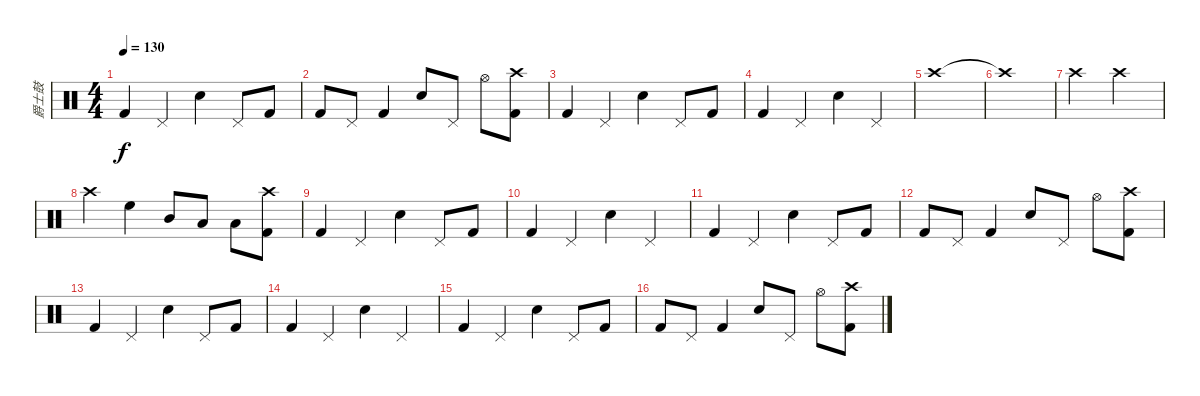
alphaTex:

\track ("爵士鼓" "爵士鼓") {instrument percussion}
\staff {score}
\articulation defaults
\ts (4 4)
\tempo 130
\clef neutral
\ks c "Kick (hit) 2".4{dy f} "Pedal Hi-Hat (hit)".4 "Snare (hit) 2".4 "Pedal Hi-Hat (hit)".8 "Kick (hit) 2".8
|
"Kick (hit) 2".8 "Pedal Hi-Hat (hit)".8 "Kick (hit) 2".4 "Snare (hit) 2".8 "Pedal Hi-Hat (hit)".8 "Hi-Hat (open)".8 ("Kick (hit) 2" "Crash high (hit)").8 |
"Kick (hit) 2".4 "Pedal Hi-Hat (hit)".4 "Snare (hit) 2".4 "Pedal Hi-Hat (hit)".8 "Kick (hit) 2".8 |
"Kick (hit) 2".4 "Pedal Hi-Hat (hit)".4 "Snare (hit) 2".4 "Pedal Hi-Hat (hit)".4 |
"Crash high (hit)".1 |
"Crash high (hit)"{t}.1 |
"Crash high (hit)".2 "Crash high (hit)".2 |
"Crash high (hit)".4 "High Floor Tom (hit)".4 "Mid Tom (hit)".8 "Low Tom (hit)".8 "Low Floor Tom (hit)".8 ("Kick (hit) 2" "Crash high (hit)").8 |
"Kick (hit) 2".4 "Pedal Hi-Hat (hit)".4 "Snare (hit) 2".4 "Pedal Hi-Hat (hit)".8 "Kick (hit) 2".8 |
"Kick (hit) 2".4 "Pedal Hi-Hat (hit)".4 "Snare (hit) 2".4 "Pedal Hi-Hat (hit)".4 |
"Kick (hit) 2".4 "Pedal Hi-Hat (hit)".4 "Snare (hit) 2".4 "Pedal Hi-Hat (hit)".8 "Kick (hit) 2".8 |
"Kick (hit) 2".8 "Pedal Hi-Hat (hit)".8 "Kick (hit) 2".4 "Snare (hit) 2".8 "Pedal Hi-Hat (hit)".8 "Hi-Hat (open)".8 ("Kick (hit) 2" "Crash high (hit)").8 |
"Kick (hit) 2".4 "Pedal Hi-Hat (hit)".4 "Snare (hit) 2".4 "Pedal Hi-Hat (hit)".8 "Kick (hit) 2".8 |
"Kick (hit) 2".4 "Pedal Hi-Hat (hit)".4 "Snare (hit) 2".4 "Pedal Hi-Hat (hit)".4 |
"Kick (hit) 2".4 "Pedal Hi-Hat (hit)".4 "Snare (hit) 2".4 "Pedal Hi-Hat (hit)".8 "Kick (hit) 2".8 |
"Kick (hit) 2".8 "Pedal Hi-Hat (hit)".8 "Kick (hit) 2".4 "Snare (hit) 2".8 "Pedal Hi-Hat (hit)".8 "Hi-Hat (open)".8 ("Kick (hit) 2" "Crash high (hit)").8
